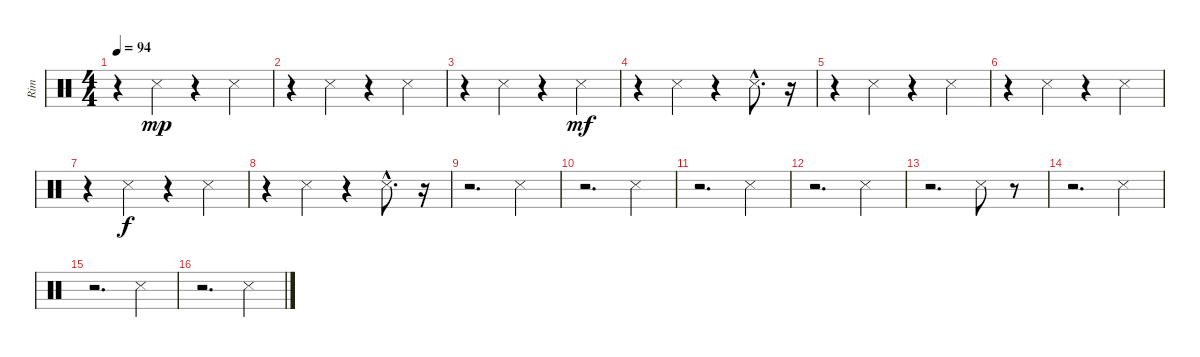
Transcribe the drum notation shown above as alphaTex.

\track ("Rim" "Rim") {instrument percussion}
\staff {score}
\articulation defaults
\ts (4 4)
\tempo 94
\clef neutral
\ks c
r.4{dy mp} "Snare (side stick) 3".4 r.4 "Snare (side stick) 3".4 |
r.4 "Snare (side stick) 3".4 r.4 "Snare (side stick) 3".4 |
r.4 "Snare (side stick) 3".4 r.4 "Snare (side stick) 3".4{dy mf} |
r.4 "Snare (side stick) 3".4 r.4 "Snare (side stick) 3"{hac}.8{d} r.16 |
r.4 "Snare (side stick) 3".4 r.4 "Snare (side stick) 3".4 |
r.4 "Snare (side stick) 3".4 r.4 "Snare (side stick) 3".4 |
r.4 "Snare (side stick) 3".4{dy f} r.4 "Snare (side stick) 3".4 |
r.4 "Snare (side stick) 3".4 r.4 "Snare (side stick) 3"{hac}.8{d} r.16 |
r.2{d} "Snare (side stick) 3".4 |
r.2{d} "Snare (side stick) 3".4 |
r.2{d} "Snare (side stick) 3".4 |
r.2{d} "Snare (side stick) 3".4 |
r.2{d} "Snare (side stick) 3".8 r.8 |
r.2{d} "Snare (side stick) 3".4 |
r.2{d} "Snare (side stick) 3".4 |
r.2{d} "Snare (side stick) 3".4
